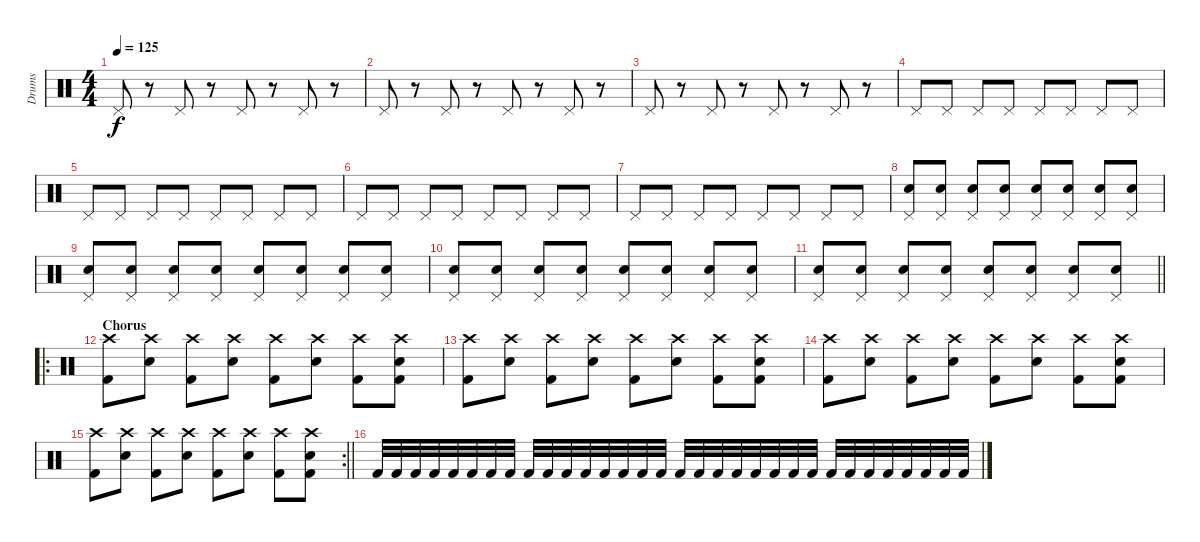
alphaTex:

\track ("Drums" "Drums") {instrument percussion}
\staff {score}
\articulation defaults
\ts (4 4)
\tempo 125
\clef neutral
\ks c "Pedal Hi-Hat (hit)".8{dy f}
r.8 "Pedal Hi-Hat (hit)".8 r.8 "Pedal Hi-Hat (hit)".8 r.8 "Pedal Hi-Hat (hit)".8 r.8 |
"Pedal Hi-Hat (hit)".8 r.8 "Pedal Hi-Hat (hit)".8 r.8 "Pedal Hi-Hat (hit)".8 r.8 "Pedal Hi-Hat (hit)".8 r.8 |
"Pedal Hi-Hat (hit)".8 r.8 "Pedal Hi-Hat (hit)".8 r.8 "Pedal Hi-Hat (hit)".8 r.8 "Pedal Hi-Hat (hit)".8 r.8 |
"Pedal Hi-Hat (hit)".8 "Pedal Hi-Hat (hit)".8 "Pedal Hi-Hat (hit)".8 "Pedal Hi-Hat (hit)".8 "Pedal Hi-Hat (hit)".8 "Pedal Hi-Hat (hit)".8 "Pedal Hi-Hat (hit)".8 "Pedal Hi-Hat (hit)".8 |
"Pedal Hi-Hat (hit)".8 "Pedal Hi-Hat (hit)".8 "Pedal Hi-Hat (hit)".8 "Pedal Hi-Hat (hit)".8 "Pedal Hi-Hat (hit)".8 "Pedal Hi-Hat (hit)".8 "Pedal Hi-Hat (hit)".8 "Pedal Hi-Hat (hit)".8 |
"Pedal Hi-Hat (hit)".8 "Pedal Hi-Hat (hit)".8 "Pedal Hi-Hat (hit)".8 "Pedal Hi-Hat (hit)".8 "Pedal Hi-Hat (hit)".8 "Pedal Hi-Hat (hit)".8 "Pedal Hi-Hat (hit)".8 "Pedal Hi-Hat (hit)".8 |
"Pedal Hi-Hat (hit)".8 "Pedal Hi-Hat (hit)".8 "Pedal Hi-Hat (hit)".8 "Pedal Hi-Hat (hit)".8 "Pedal Hi-Hat (hit)".8 "Pedal Hi-Hat (hit)".8 "Pedal Hi-Hat (hit)".8 "Pedal Hi-Hat (hit)".8 |
("Snare (hit) 2" "Pedal Hi-Hat (hit)").8{volume 2} ("Snare (hit) 2" "Pedal Hi-Hat (hit)").8 ("Snare (hit) 2" "Pedal Hi-Hat (hit)").8{volume 3} ("Snare (hit) 2" "Pedal Hi-Hat (hit)").8 ("Snare (hit) 2" "Pedal Hi-Hat (hit)").8{volume 4} ("Snare (hit) 2" "Pedal Hi-Hat (hit)").8 ("Snare (hit) 2" "Pedal Hi-Hat (hit)").8{volume 5} ("Snare (hit) 2" "Pedal Hi-Hat (hit)").8 |
("Snare (hit) 2" "Pedal Hi-Hat (hit)").8{volume 6} ("Snare (hit) 2" "Pedal Hi-Hat (hit)").8 ("Snare (hit) 2" "Pedal Hi-Hat (hit)").8{volume 7} ("Snare (hit) 2" "Pedal Hi-Hat (hit)").8 ("Snare (hit) 2" "Pedal Hi-Hat (hit)").8{volume 8} ("Snare (hit) 2" "Pedal Hi-Hat (hit)").8 ("Snare (hit) 2" "Pedal Hi-Hat (hit)").8{volume 9} ("Snare (hit) 2" "Pedal Hi-Hat (hit)").8 |
("Snare (hit) 2" "Pedal Hi-Hat (hit)").8{volume 10} ("Snare (hit) 2" "Pedal Hi-Hat (hit)").8 ("Snare (hit) 2" "Pedal Hi-Hat (hit)").8{volume 11} ("Snare (hit) 2" "Pedal Hi-Hat (hit)").8 ("Snare (hit) 2" "Pedal Hi-Hat (hit)").8{volume 12} ("Snare (hit) 2" "Pedal Hi-Hat (hit)").8 ("Snare (hit) 2" "Pedal Hi-Hat (hit)").8{volume 13} ("Snare (hit) 2" "Pedal Hi-Hat (hit)").8 |
\barLineRight lightlight
("Snare (hit) 2" "Pedal Hi-Hat (hit)").8{volume 14} ("Snare (hit) 2" "Pedal Hi-Hat (hit)").8 ("Snare (hit) 2" "Pedal Hi-Hat (hit)").8{volume 15} ("Snare (hit) 2" "Pedal Hi-Hat (hit)").8 ("Snare (hit) 2" "Pedal Hi-Hat (hit)").8{volume 16} ("Snare (hit) 2" "Pedal Hi-Hat (hit)").8 ("Snare (hit) 2" "Pedal Hi-Hat (hit)").8 ("Snare (hit) 2" "Pedal Hi-Hat (hit)").8 |
\ro
\section ("" "Chorus")
("Crash high (hit)" "Kick (hit) 2").8{volume 13} ("Crash high (hit)" "Snare (hit) 2").8 ("Crash high (hit)" "Kick (hit) 2").8 ("Crash high (hit)" "Snare (hit) 2").8 ("Crash high (hit)" "Kick (hit) 2").8 ("Crash high (hit)" "Snare (hit) 2").8 ("Crash high (hit)" "Kick (hit) 2").8 ("Crash high (hit)" "Snare (hit) 2" "Kick (hit) 2").8 |
("Crash high (hit)" "Kick (hit) 2").8{volume 13} ("Crash high (hit)" "Snare (hit) 2").8 ("Crash high (hit)" "Kick (hit) 2").8 ("Crash high (hit)" "Snare (hit) 2").8 ("Crash high (hit)" "Kick (hit) 2").8 ("Crash high (hit)" "Snare (hit) 2").8 ("Crash high (hit)" "Kick (hit) 2").8 ("Crash high (hit)" "Snare (hit) 2" "Kick (hit) 2").8 |
("Crash high (hit)" "Kick (hit) 2").8{volume 13} ("Crash high (hit)" "Snare (hit) 2").8 ("Crash high (hit)" "Kick (hit) 2").8 ("Crash high (hit)" "Snare (hit) 2").8 ("Crash high (hit)" "Kick (hit) 2").8 ("Crash high (hit)" "Snare (hit) 2").8 ("Crash high (hit)" "Kick (hit) 2").8 ("Crash high (hit)" "Snare (hit) 2" "Kick (hit) 2").8 |
\rc 2
\barLineRight lightlight
("Crash high (hit)" "Kick (hit) 2").8{volume 13} ("Crash high (hit)" "Snare (hit) 2").8 ("Crash high (hit)" "Kick (hit) 2").8 ("Crash high (hit)" "Snare (hit) 2").8 ("Crash high (hit)" "Kick (hit) 2").8 ("Crash high (hit)" "Snare (hit) 2").8 ("Crash high (hit)" "Kick (hit) 2").8 ("Crash high (hit)" "Snare (hit) 2" "Kick (hit) 2").8 |
"Kick (hit) 2".32 "Kick (hit) 2".32 "Kick (hit) 2".32 "Kick (hit) 2".32 "Kick (hit) 2".32 "Kick (hit) 2".32 "Kick (hit) 2".32 "Kick (hit) 2".32 "Kick (hit) 2".32 "Kick (hit) 2".32 "Kick (hit) 2".32 "Kick (hit) 2".32 "Kick (hit) 2".32 "Kick (hit) 2".32 "Kick (hit) 2".32 "Kick (hit) 2".32 "Kick (hit) 2".32 "Kick (hit) 2".32 "Kick (hit) 2".32 "Kick (hit) 2".32 "Kick (hit) 2".32 "Kick (hit) 2".32 "Kick (hit) 2".32 "Kick (hit) 2".32 "Kick (hit) 2".32 "Kick (hit) 2".32 "Kick (hit) 2".32 "Kick (hit) 2".32 "Kick (hit) 2".32 "Kick (hit) 2".32 "Kick (hit) 2".32 "Kick (hit) 2".32
